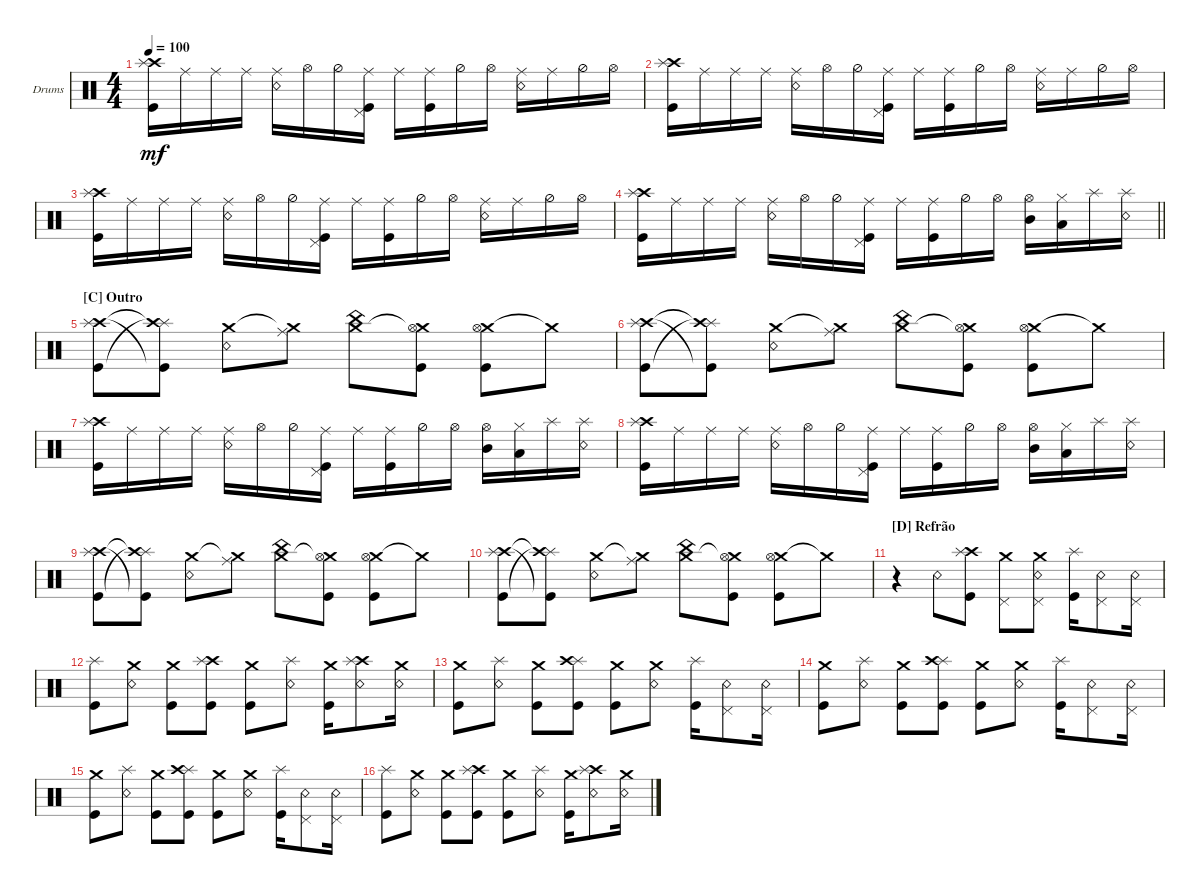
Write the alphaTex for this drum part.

\defaultSystemsLayout 4
\bracketExtendMode groupsimilarinstruments
\firstSystemTrackNameOrientation horizontal
\otherSystemsTrackNameOrientation horizontal
\track ("Bateria" "Drums") {multiBarRest instrument percussion}
\staff {score}
\articulation defaults
\ts (4 4)
\tempo 100
\clef neutral
\ks c
("Kick (hit)" "Crash high (hit)" "Splash (hit)").16{dy mf} "Ride (middle)".16 "Ride (middle)".16 "Ride (middle)".16 ("Ride (middle)" "Snare (rim shot)").16 "Hi-Hat (open)".16 "Hi-Hat (half)".16 ("Ride (middle)" "Kick (hit)" "Pedal Hi-Hat (hit)").16 "Ride (middle)".16 ("Ride (middle)" "Kick (hit)").16 "Hi-Hat (half)".16 "Hi-Hat (open)".16 ("Ride (middle)" "Snare (rim shot)").16 "Ride (middle)".16 "Hi-Hat (half)".16 "Hi-Hat (open)".16 |
("Kick (hit)" "Crash high (hit)" "Splash (hit)").16 "Ride (middle)".16 "Ride (middle)".16 "Ride (middle)".16 ("Ride (middle)" "Snare (rim shot)").16 "Hi-Hat (open)".16 "Hi-Hat (half)".16 ("Ride (middle)" "Kick (hit)" "Pedal Hi-Hat (hit)").16 "Ride (middle)".16 ("Ride (middle)" "Kick (hit)").16 "Hi-Hat (half)".16 "Hi-Hat (open)".16 ("Ride (middle)" "Snare (rim shot)").16 "Ride (middle)".16 "Hi-Hat (half)".16 "Hi-Hat (open)".16 |
("Kick (hit)" "Crash high (hit)" "Splash (hit)").16 "Ride (middle)".16 "Ride (middle)".16 "Ride (middle)".16 ("Ride (middle)" "Snare (rim shot)").16 "Hi-Hat (open)".16 "Hi-Hat (half)".16 ("Ride (middle)" "Kick (hit)" "Pedal Hi-Hat (hit)").16 "Ride (middle)".16 ("Ride (middle)" "Kick (hit)").16 "Hi-Hat (half)".16 "Hi-Hat (open)".16 ("Ride (middle)" "Snare (rim shot)").16 "Ride (middle)".16 "Hi-Hat (half)".16 "Hi-Hat (open)".16 |
\barLineRight lightlight
("Kick (hit)" "Crash high (hit)" "Splash (hit)").16 "Ride (middle)".16 "Ride (middle)".16 "Ride (middle)".16 ("Ride (middle)" "Snare (rim shot)").16 "Hi-Hat (open)".16 "Hi-Hat (half)".16 ("Ride (middle)" "Kick (hit)" "Pedal Hi-Hat (hit)").16 "Ride (middle)".16 ("Ride (middle)" "Kick (hit)").16 "Hi-Hat (half)".16 "Hi-Hat (open)".16 ("Mid Tom (hit)" "Hi-Hat (open)").16 ("Low Tom (hit)" "Hi-Hat (closed)").16 "Splash (hit)".16 ("Snare (rim shot)" "Splash (hit)").16 |
\section ("C" "Outro")
("Kick (hit)" "Crash high (hit)" "Splash (hit)").8 ("Splash (hit)"{t} "Kick (hit)"{t} "Crash high (hit)"{t}).8 ("Crash medium (hit)" "Snare (rim shot)").8 ("Crash medium (hit)"{t} "Ride (middle)").8 ("Crash medium (hit)" "China (hit)").8 ("Crash medium (hit)"{t} "Kick (hit)" "Hi-Hat (open)").8 ("Crash medium (hit)" "Kick (hit)" "Hi-Hat (open)").8 "Crash medium (hit)"{t}.8 |
("Kick (hit)" "Crash high (hit)" "Splash (hit)").8 ("Splash (hit)"{t} "Kick (hit)"{t} "Crash high (hit)"{t}).8 ("Crash medium (hit)" "Snare (rim shot)").8 ("Crash medium (hit)"{t} "Ride (middle)").8 ("Crash medium (hit)" "China (hit)").8 ("Crash medium (hit)"{t} "Kick (hit)" "Hi-Hat (open)").8 ("Crash medium (hit)" "Kick (hit)" "Hi-Hat (open)").8 "Crash medium (hit)"{t}.8 |
("Kick (hit)" "Crash high (hit)" "Splash (hit)").16 "Ride (middle)".16 "Ride (middle)".16 "Ride (middle)".16 ("Ride (middle)" "Snare (rim shot)").16 "Hi-Hat (open)".16 "Hi-Hat (half)".16 ("Ride (middle)" "Kick (hit)" "Pedal Hi-Hat (hit)").16 "Ride (middle)".16 ("Ride (middle)" "Kick (hit)").16 "Hi-Hat (half)".16 "Hi-Hat (open)".16 ("Mid Tom (hit)" "Hi-Hat (open)").16 ("Low Tom (hit)" "Hi-Hat (closed)").16 "Splash (hit)".16 ("Snare (rim shot)" "Splash (hit)").16 |
("Kick (hit)" "Crash high (hit)" "Splash (hit)").16 "Ride (middle)".16 "Ride (middle)".16 "Ride (middle)".16 ("Ride (middle)" "Snare (rim shot)").16 "Hi-Hat (open)".16 "Hi-Hat (half)".16 ("Ride (middle)" "Kick (hit)" "Pedal Hi-Hat (hit)").16 "Ride (middle)".16 ("Ride (middle)" "Kick (hit)").16 "Hi-Hat (half)".16 "Hi-Hat (open)".16 ("Mid Tom (hit)" "Hi-Hat (open)").16 ("Low Tom (hit)" "Hi-Hat (closed)").16 "Splash (hit)".16 ("Snare (rim shot)" "Splash (hit)").16 |
("Kick (hit)" "Crash high (hit)" "Splash (hit)").8 ("Splash (hit)"{t} "Kick (hit)"{t} "Crash high (hit)"{t}).8 ("Crash medium (hit)" "Snare (rim shot)").8 ("Crash medium (hit)"{t} "Ride (middle)").8 ("Crash medium (hit)" "China (hit)").8 ("Crash medium (hit)"{t} "Kick (hit)" "Hi-Hat (open)").8 ("Crash medium (hit)" "Kick (hit)" "Hi-Hat (open)").8 "Crash medium (hit)"{t}.8 |
("Kick (hit)" "Crash high (hit)" "Splash (hit)").8 ("Splash (hit)"{t} "Kick (hit)"{t} "Crash high (hit)"{t}).8 ("Crash medium (hit)" "Snare (rim shot)").8 ("Crash medium (hit)"{t} "Ride (middle)").8 ("Crash medium (hit)" "China (hit)").8 ("Crash medium (hit)"{t} "Kick (hit)" "Hi-Hat (open)").8 ("Crash medium (hit)" "Kick (hit)" "Hi-Hat (open)").8 "Crash medium (hit)"{t}.8 |
\section ("D" "Refrão")
r.4 "Snare (rim shot)".8 ("Kick (hit)" "Crash high (hit)" "Splash (hit)").8 ("Pedal Hi-Hat (hit)" "Crash medium (hit)").8 ("Pedal Hi-Hat (hit)" "Snare (rim shot)" "Crash medium (hit)").8 ("Kick (hit)" "Splash (hit)").16 ("Snare (rim shot)" "Pedal Hi-Hat (hit)").8 ("Snare (rim shot)" "Pedal Hi-Hat (hit)").16 |
("Kick (hit)" "Splash (hit)").8 ("Snare (rim shot)" "Crash medium (hit)").8 ("Kick (hit)" "Crash medium (hit)").8 ("Kick (hit)" "Crash high (hit)" "Splash (hit)").8 ("Kick (hit)" "Crash medium (hit)").8 ("Snare (rim shot)" "Splash (hit)").8 ("Kick (hit)" "Crash medium (hit)").16 ("Snare (rim shot)" "Crash high (hit)" "Splash (hit)").8 ("Snare (rim shot)" "Crash medium (hit)").16 |
("Kick (hit)" "Crash medium (hit)").8 ("Snare (rim shot)" "Splash (hit)").8 ("Kick (hit)" "Crash medium (hit)").8 ("Splash (hit)" "Kick (hit)" "Crash high (hit)").8 ("Kick (hit)" "Crash medium (hit)").8 ("Snare (rim shot)" "Crash medium (hit)").8 ("Kick (hit)" "Splash (hit)").16 ("Snare (rim shot)" "Pedal Hi-Hat (hit)").8 ("Snare (rim shot)" "Pedal Hi-Hat (hit)").16 |
("Kick (hit)" "Crash medium (hit)").8 ("Snare (rim shot)" "Splash (hit)").8 ("Kick (hit)" "Crash medium (hit)").8 ("Splash (hit)" "Kick (hit)" "Crash high (hit)").8 ("Kick (hit)" "Crash medium (hit)").8 ("Snare (rim shot)" "Crash medium (hit)").8 ("Kick (hit)" "Splash (hit)").16 ("Snare (rim shot)" "Pedal Hi-Hat (hit)").8 ("Snare (rim shot)" "Pedal Hi-Hat (hit)").16 |
("Kick (hit)" "Crash medium (hit)").8 ("Snare (rim shot)" "Splash (hit)").8 ("Kick (hit)" "Crash medium (hit)").8 ("Splash (hit)" "Kick (hit)" "Crash high (hit)").8 ("Kick (hit)" "Crash medium (hit)").8 ("Snare (rim shot)" "Crash medium (hit)").8 ("Kick (hit)" "Splash (hit)").16 ("Snare (rim shot)" "Pedal Hi-Hat (hit)").8 ("Snare (rim shot)" "Pedal Hi-Hat (hit)").16 |
("Kick (hit)" "Splash (hit)").8 ("Snare (rim shot)" "Crash medium (hit)").8 ("Kick (hit)" "Crash medium (hit)").8 ("Kick (hit)" "Crash high (hit)" "Splash (hit)").8 ("Kick (hit)" "Crash medium (hit)").8 ("Snare (rim shot)" "Splash (hit)").8 ("Kick (hit)" "Crash medium (hit)").16 ("Snare (rim shot)" "Crash high (hit)" "Splash (hit)").8 ("Snare (rim shot)" "Crash medium (hit)").16
